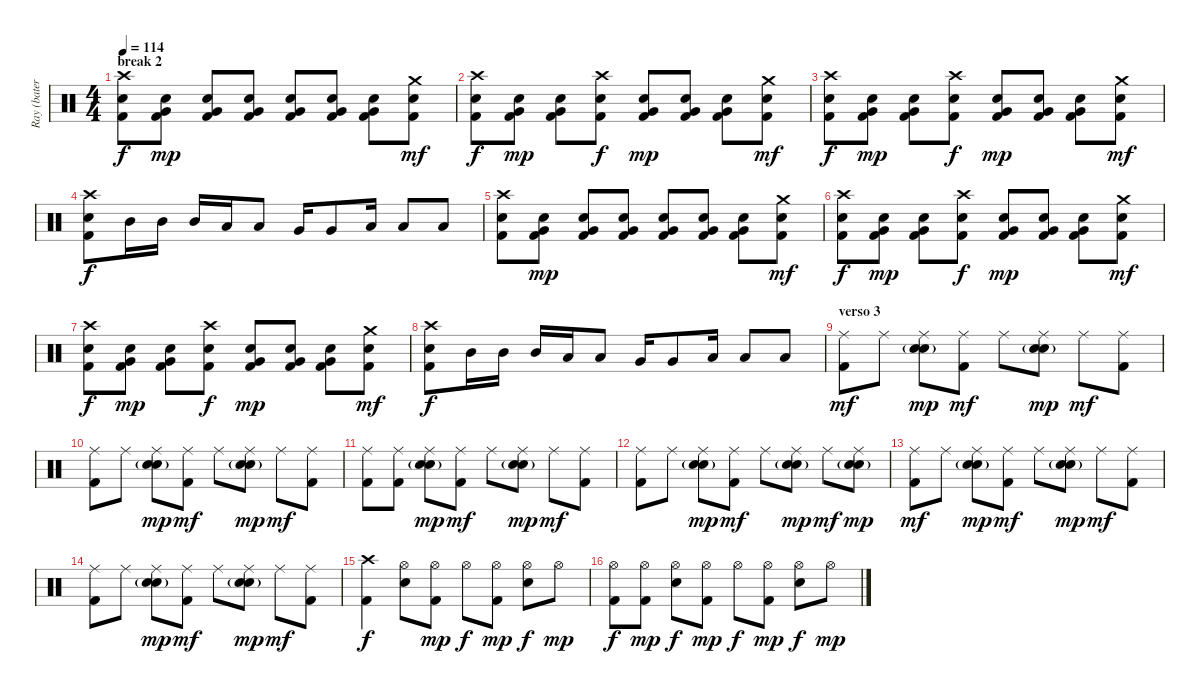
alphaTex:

\track ("Ray (batería)" "Ray (bater") {instrument percussion}
\staff {score}
\articulation defaults
\ts (4 4)
\section ("" "break 2")
\tempo 114
\clef neutral
\ks c
("Crash high (hit)" "Snare (hit) 2" "Kick (hit) 2").8{dy f} ("Snare (hit) 2" "Very Low Tom (hit)" "Kick (hit) 2").8{dy mp} ("Snare (hit) 2" "Very Low Tom (hit)" "Kick (hit) 2").8 ("Snare (hit) 2" "Very Low Tom (hit)" "Kick (hit) 2").8 ("Snare (hit) 2" "Very Low Tom (hit)" "Kick (hit) 2").8 ("Snare (hit) 2" "Very Low Tom (hit)" "Kick (hit) 2").8 ("Snare (hit) 2" "Very Low Tom (hit)" "Kick (hit) 2").8 ("Crash medium (hit)" "Snare (hit) 2" "Kick (hit) 2").8{dy mf} |
("Crash high (hit)" "Snare (hit) 2" "Kick (hit) 2").8{dy f} ("Snare (hit) 2" "Very Low Tom (hit)" "Kick (hit) 2").8{dy mp} ("Snare (hit) 2" "Very Low Tom (hit)" "Kick (hit) 2").8 ("Crash high (hit)" "Snare (hit) 2" "Kick (hit) 2").8{dy f} ("Snare (hit) 2" "Very Low Tom (hit)" "Kick (hit) 2").8{dy mp} ("Snare (hit) 2" "Very Low Tom (hit)" "Kick (hit) 2").8 ("Snare (hit) 2" "Very Low Tom (hit)" "Kick (hit) 2").8 ("Crash medium (hit)" "Snare (hit) 2" "Kick (hit) 2").8{dy mf} |
("Crash high (hit)" "Snare (hit) 2" "Kick (hit) 2").8{dy f} ("Snare (hit) 2" "Very Low Tom (hit)" "Kick (hit) 2").8{dy mp} ("Snare (hit) 2" "Very Low Tom (hit)" "Kick (hit) 2").8 ("Crash high (hit)" "Snare (hit) 2" "Kick (hit) 2").8{dy f} ("Snare (hit) 2" "Very Low Tom (hit)" "Kick (hit) 2").8{dy mp} ("Snare (hit) 2" "Very Low Tom (hit)" "Kick (hit) 2").8 ("Snare (hit) 2" "Very Low Tom (hit)" "Kick (hit) 2").8 ("Crash medium (hit)" "Snare (hit) 2" "Kick (hit) 2").8{dy mf} |
("Crash high (hit)" "Snare (hit) 2" "Kick (hit) 2").8{dy f} "Mid Tom (hit)".16 "Mid Tom (hit)".16 "Mid Tom (hit)".16 "Low Tom (hit)".16 "Low Tom (hit)".8 "Very Low Tom (hit)".16 "Very Low Tom (hit)".8 "Low Floor Tom (hit)".16 "Low Floor Tom (hit)".8 "Low Floor Tom (hit)".8 |
("Crash high (hit)" "Snare (hit) 2" "Kick (hit) 2").8 ("Snare (hit) 2" "Very Low Tom (hit)" "Kick (hit) 2").8{dy mp} ("Snare (hit) 2" "Very Low Tom (hit)" "Kick (hit) 2").8 ("Snare (hit) 2" "Very Low Tom (hit)" "Kick (hit) 2").8 ("Snare (hit) 2" "Very Low Tom (hit)" "Kick (hit) 2").8 ("Snare (hit) 2" "Very Low Tom (hit)" "Kick (hit) 2").8 ("Snare (hit) 2" "Very Low Tom (hit)" "Kick (hit) 2").8 ("Crash medium (hit)" "Snare (hit) 2" "Kick (hit) 2").8{dy mf} |
("Crash high (hit)" "Snare (hit) 2" "Kick (hit) 2").8{dy f} ("Snare (hit) 2" "Very Low Tom (hit)" "Kick (hit) 2").8{dy mp} ("Snare (hit) 2" "Very Low Tom (hit)" "Kick (hit) 2").8 ("Crash high (hit)" "Snare (hit) 2" "Kick (hit) 2").8{dy f} ("Snare (hit) 2" "Very Low Tom (hit)" "Kick (hit) 2").8{dy mp} ("Snare (hit) 2" "Very Low Tom (hit)" "Kick (hit) 2").8 ("Snare (hit) 2" "Very Low Tom (hit)" "Kick (hit) 2").8 ("Crash medium (hit)" "Snare (hit) 2" "Kick (hit) 2").8{dy mf} |
("Crash high (hit)" "Snare (hit) 2" "Kick (hit) 2").8{dy f} ("Snare (hit) 2" "Very Low Tom (hit)" "Kick (hit) 2").8{dy mp} ("Snare (hit) 2" "Very Low Tom (hit)" "Kick (hit) 2").8 ("Crash high (hit)" "Snare (hit) 2" "Kick (hit) 2").8{dy f} ("Snare (hit) 2" "Very Low Tom (hit)" "Kick (hit) 2").8{dy mp} ("Snare (hit) 2" "Very Low Tom (hit)" "Kick (hit) 2").8 ("Snare (hit) 2" "Very Low Tom (hit)" "Kick (hit) 2").8 ("Crash medium (hit)" "Snare (hit) 2" "Kick (hit) 2").8{dy mf} |
("Crash high (hit)" "Snare (hit) 2" "Kick (hit) 2").8{dy f} "Mid Tom (hit)".16 "Mid Tom (hit)".16 "Mid Tom (hit)".16 "Low Tom (hit)".16 "Low Tom (hit)".8 "Very Low Tom (hit)".16 "Very Low Tom (hit)".8 "Low Floor Tom (hit)".16 "Low Floor Tom (hit)".8 "Low Floor Tom (hit)".8 |
\section ("" "verso 3")
("Ride (middle)" "Kick (hit) 2").8{dy mf} "Ride (middle)".8 ("Ride (middle)" "Electric Snare (hit)"{g} "Hand Clap (hit)").8{dy mp} ("Ride (middle)" "Kick (hit) 2").8{dy mf} "Ride (middle)".8 ("Ride (middle)" "Electric Snare (hit)"{g} "Hand Clap (hit)").8{dy mp} "Ride (middle)".8{dy mf} ("Ride (middle)" "Kick (hit) 2").8 |
("Ride (middle)" "Kick (hit) 2").8 "Ride (middle)".8 ("Ride (middle)" "Electric Snare (hit)"{g} "Hand Clap (hit)").8{dy mp} ("Ride (middle)" "Kick (hit) 2").8{dy mf} "Ride (middle)".8 ("Ride (middle)" "Electric Snare (hit)"{g} "Hand Clap (hit)").8{dy mp} "Ride (middle)".8{dy mf} ("Ride (middle)" "Kick (hit) 2").8 |
("Ride (middle)" "Kick (hit) 2").8 ("Ride (middle)" "Kick (hit) 2").8 ("Ride (middle)" "Electric Snare (hit)"{g} "Hand Clap (hit)").8{dy mp} ("Ride (middle)" "Kick (hit) 2").8{dy mf} "Ride (middle)".8 ("Ride (middle)" "Electric Snare (hit)"{g} "Hand Clap (hit)").8{dy mp} "Ride (middle)".8{dy mf} ("Ride (middle)" "Kick (hit) 2").8 |
("Ride (middle)" "Kick (hit) 2").8 "Ride (middle)".8 ("Ride (middle)" "Electric Snare (hit)"{g} "Hand Clap (hit)").8{dy mp} ("Ride (middle)" "Kick (hit) 2").8{dy mf} "Ride (middle)".8 ("Ride (middle)" "Electric Snare (hit)"{g} "Hand Clap (hit)").8{dy mp} "Ride (middle)".8{dy mf} ("Ride (middle)" "Electric Snare (hit)"{g} "Hand Clap (hit)").8{dy mp} |
("Ride (middle)" "Kick (hit) 2").8{dy mf} "Ride (middle)".8 ("Ride (middle)" "Electric Snare (hit)"{g} "Hand Clap (hit)").8{dy mp} ("Ride (middle)" "Kick (hit) 2").8{dy mf} "Ride (middle)".8 ("Ride (middle)" "Electric Snare (hit)"{g} "Hand Clap (hit)").8{dy mp} "Ride (middle)".8{dy mf} ("Ride (middle)" "Kick (hit) 2").8 |
("Ride (middle)" "Kick (hit) 2").8 "Ride (middle)".8 ("Ride (middle)" "Electric Snare (hit)"{g} "Hand Clap (hit)").8{dy mp} ("Ride (middle)" "Kick (hit) 2").8{dy mf} "Ride (middle)".8 ("Ride (middle)" "Electric Snare (hit)"{g} "Hand Clap (hit)").8{dy mp} "Ride (middle)".8{dy mf} ("Ride (middle)" "Kick (hit) 2").8 |
("Crash high (hit)" "Kick (hit) 2").4{dy f} ("Hi-Hat (open)" "Snare (hit) 2").8 ("Hi-Hat (open)" "Kick (hit) 2").8{dy mp} "Hi-Hat (open)".8{dy f} ("Hi-Hat (open)" "Kick (hit) 2").8{dy mp} ("Hi-Hat (open)" "Snare (hit) 2").8{dy f} "Hi-Hat (open)".8{dy mp} |
("Hi-Hat (open)" "Kick (hit) 2").8{dy f} ("Hi-Hat (open)" "Kick (hit) 2").8{dy mp} ("Hi-Hat (open)" "Snare (hit) 2").8{dy f} ("Hi-Hat (open)" "Kick (hit) 2").8{dy mp} "Hi-Hat (open)".8{dy f} ("Hi-Hat (open)" "Kick (hit) 2").8{dy mp} ("Hi-Hat (open)" "Snare (hit) 2").8{dy f} "Hi-Hat (open)".8{dy mp}
